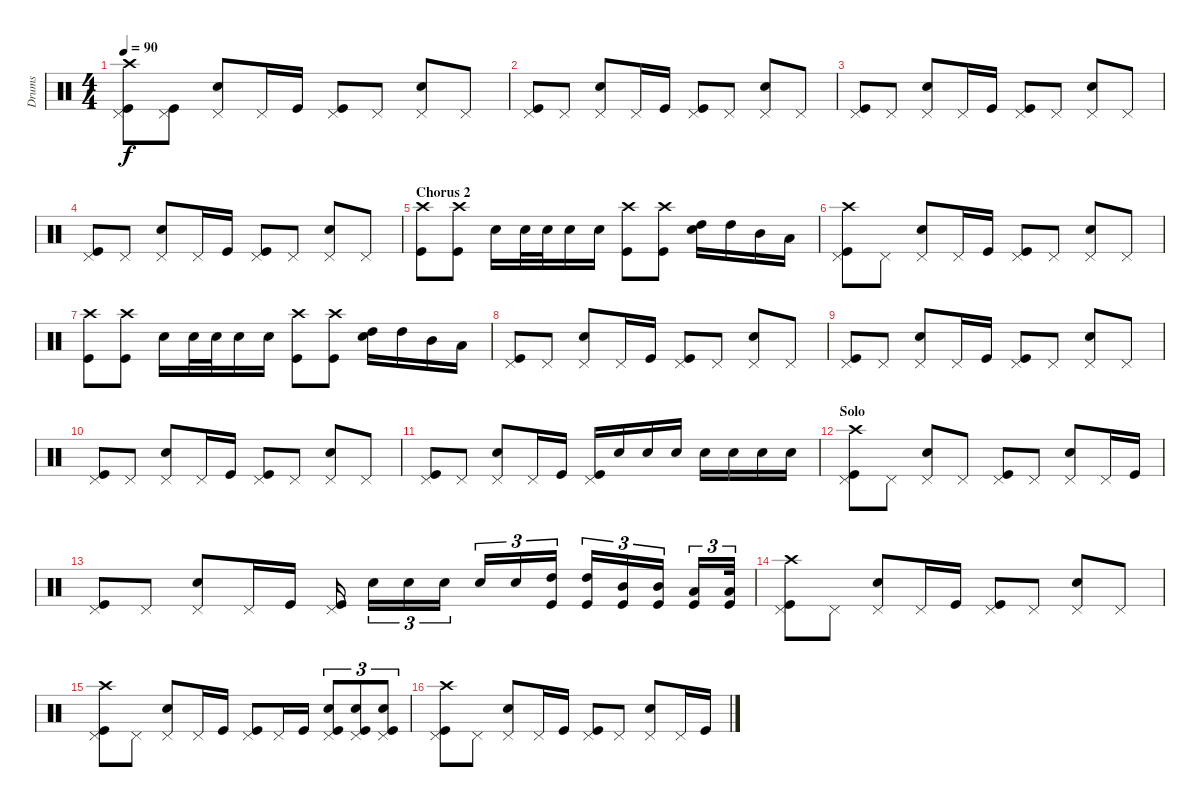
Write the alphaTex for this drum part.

\track ("Drums" "Drums") {instrument percussion}
\staff {score}
\articulation defaults
\ts (4 4)
\tempo 90
\clef neutral
\ks c
("Pedal Hi-Hat (hit)" "Kick (hit)" "Crash high (hit)").8{dy f} ("Pedal Hi-Hat (hit)" "Kick (hit)").8 ("Pedal Hi-Hat (hit)" "Snare (hit) 2").8 "Pedal Hi-Hat (hit)".16 "Kick (hit)".16 ("Pedal Hi-Hat (hit)" "Kick (hit)").8 "Pedal Hi-Hat (hit)".8 ("Pedal Hi-Hat (hit)" "Snare (hit) 2").8 "Pedal Hi-Hat (hit)".8 |
("Pedal Hi-Hat (hit)" "Kick (hit)").8 "Pedal Hi-Hat (hit)".8 ("Pedal Hi-Hat (hit)" "Snare (hit) 2").8 "Pedal Hi-Hat (hit)".16 "Kick (hit)".16 ("Pedal Hi-Hat (hit)" "Kick (hit)").8 "Pedal Hi-Hat (hit)".8 ("Pedal Hi-Hat (hit)" "Snare (hit) 2").8 "Pedal Hi-Hat (hit)".8 |
("Pedal Hi-Hat (hit)" "Kick (hit)").8 "Pedal Hi-Hat (hit)".8 ("Pedal Hi-Hat (hit)" "Snare (hit) 2").8 "Pedal Hi-Hat (hit)".16 "Kick (hit)".16 ("Pedal Hi-Hat (hit)" "Kick (hit)").8 "Pedal Hi-Hat (hit)".8 ("Pedal Hi-Hat (hit)" "Snare (hit) 2").8 "Pedal Hi-Hat (hit)".8 |
("Pedal Hi-Hat (hit)" "Kick (hit)").8 "Pedal Hi-Hat (hit)".8 ("Pedal Hi-Hat (hit)" "Snare (hit) 2").8 "Pedal Hi-Hat (hit)".16 "Kick (hit)".16 ("Pedal Hi-Hat (hit)" "Kick (hit)").8 "Pedal Hi-Hat (hit)".8 ("Pedal Hi-Hat (hit)" "Snare (hit) 2").8 "Pedal Hi-Hat (hit)".8 |
\section ("" "Chorus 2")
("Kick (hit)" "Crash high (hit)").8 ("Kick (hit)" "Crash high (hit)").8 "Snare (hit) 2".16 "Snare (hit) 2".32 "Snare (hit) 2".32 "Snare (hit) 2".16 "Snare (hit) 2".16 ("Kick (hit)" "Crash high (hit)").8 ("Kick (hit)" "Crash high (hit)").8 ("Snare (hit) 2" "High Tom (hit)").16 "High Tom (hit)".16 "Mid Tom (hit)".16 "Low Tom (hit)".16 |
("Pedal Hi-Hat (hit)" "Kick (hit)" "Crash high (hit)").8 "Pedal Hi-Hat (hit)".8 ("Pedal Hi-Hat (hit)" "Snare (hit) 2").8 "Pedal Hi-Hat (hit)".16 "Kick (hit)".16 ("Pedal Hi-Hat (hit)" "Kick (hit)").8 "Pedal Hi-Hat (hit)".8 ("Pedal Hi-Hat (hit)" "Snare (hit) 2").8 "Pedal Hi-Hat (hit)".8 |
("Kick (hit)" "Crash high (hit)").8 ("Kick (hit)" "Crash high (hit)").8 "Snare (hit) 2".16 "Snare (hit) 2".32 "Snare (hit) 2".32 "Snare (hit) 2".16 "Snare (hit) 2".16 ("Kick (hit)" "Crash high (hit)").8 ("Kick (hit)" "Crash high (hit)").8 ("Snare (hit) 2" "High Tom (hit)").16 "High Tom (hit)".16 "Mid Tom (hit)".16 "Low Tom (hit)".16 |
("Pedal Hi-Hat (hit)" "Kick (hit)").8 "Pedal Hi-Hat (hit)".8 ("Pedal Hi-Hat (hit)" "Snare (hit) 2").8 "Pedal Hi-Hat (hit)".16 "Kick (hit)".16 ("Pedal Hi-Hat (hit)" "Kick (hit)").8 "Pedal Hi-Hat (hit)".8 ("Pedal Hi-Hat (hit)" "Snare (hit) 2").8 "Pedal Hi-Hat (hit)".8 |
("Pedal Hi-Hat (hit)" "Kick (hit)").8 "Pedal Hi-Hat (hit)".8 ("Pedal Hi-Hat (hit)" "Snare (hit) 2").8 "Pedal Hi-Hat (hit)".16 "Kick (hit)".16 ("Pedal Hi-Hat (hit)" "Kick (hit)").8 "Pedal Hi-Hat (hit)".8 ("Pedal Hi-Hat (hit)" "Snare (hit) 2").8 "Pedal Hi-Hat (hit)".8 |
("Pedal Hi-Hat (hit)" "Kick (hit)").8 "Pedal Hi-Hat (hit)".8 ("Pedal Hi-Hat (hit)" "Snare (hit) 2").8 "Pedal Hi-Hat (hit)".16 "Kick (hit)".16 ("Pedal Hi-Hat (hit)" "Kick (hit)").8 "Pedal Hi-Hat (hit)".8 ("Pedal Hi-Hat (hit)" "Snare (hit) 2").8 "Pedal Hi-Hat (hit)".8 |
("Pedal Hi-Hat (hit)" "Kick (hit)").8 "Pedal Hi-Hat (hit)".8 ("Pedal Hi-Hat (hit)" "Snare (hit) 2").8 "Pedal Hi-Hat (hit)".16 "Kick (hit)".16 ("Pedal Hi-Hat (hit)" "Kick (hit)").16 "Snare (hit) 2".16 "Snare (hit) 2".16 "Snare (hit) 2".16 "Snare (hit) 2".16 "Snare (hit) 2".16 "Snare (hit) 2".16 "Snare (hit) 2".16 |
\section ("" "Solo")
("Pedal Hi-Hat (hit)" "Kick (hit)" "Crash high (hit)").8 "Pedal Hi-Hat (hit)".8 ("Pedal Hi-Hat (hit)" "Snare (hit) 2").8 "Pedal Hi-Hat (hit)".8 ("Pedal Hi-Hat (hit)" "Kick (hit)").8 "Pedal Hi-Hat (hit)".8 ("Pedal Hi-Hat (hit)" "Snare (hit) 2").8 "Pedal Hi-Hat (hit)".16 "Kick (hit)".16 |
("Pedal Hi-Hat (hit)" "Kick (hit)").8 "Pedal Hi-Hat (hit)".8 ("Pedal Hi-Hat (hit)" "Snare (hit) 2").8 "Pedal Hi-Hat (hit)".16 "Kick (hit)".16 ("Pedal Hi-Hat (hit)" "Kick (hit)").16 "Snare (hit) 2".16{tu (3 2)} "Snare (hit) 2".16{tu (3 2)} "Snare (hit) 2".16{tu (3 2)} "Snare (hit) 2".16{tu (3 2)} "Snare (hit) 2".16{tu (3 2)} ("High Tom (hit)" "Kick (hit)").16{tu (3 2)} ("High Tom (hit)" "Kick (hit)").16{tu (3 2)} ("Mid Tom (hit)" "Kick (hit)").16{tu (3 2)} ("Mid Tom (hit)" "Kick (hit)").16{tu (3 2)} ("Low Tom (hit)" "Kick (hit)").16{tu (3 2)} ("Low Tom (hit)" "Kick (hit)").32{tu (3 2)} |
("Pedal Hi-Hat (hit)" "Kick (hit)" "Crash high (hit)").8 "Pedal Hi-Hat (hit)".8 ("Pedal Hi-Hat (hit)" "Snare (hit) 2").8 "Pedal Hi-Hat (hit)".16 "Kick (hit)".16 ("Pedal Hi-Hat (hit)" "Kick (hit)").8 "Pedal Hi-Hat (hit)".8 ("Pedal Hi-Hat (hit)" "Snare (hit) 2").8 "Pedal Hi-Hat (hit)".8 |
("Pedal Hi-Hat (hit)" "Kick (hit)" "Crash high (hit)").8 "Pedal Hi-Hat (hit)".8 ("Pedal Hi-Hat (hit)" "Snare (hit) 2").8 "Pedal Hi-Hat (hit)".16 "Kick (hit)".16 ("Pedal Hi-Hat (hit)" "Kick (hit)").8 "Pedal Hi-Hat (hit)".16 "Kick (hit)".16 ("Pedal Hi-Hat (hit)" "Snare (hit) 2" "Kick (hit)").8{tu (3 2)} ("Pedal Hi-Hat (hit)" "Snare (hit) 2" "Kick (hit)").8{tu (3 2)} ("Pedal Hi-Hat (hit)" "Snare (hit) 2" "Kick (hit)").8{tu (3 2)} |
("Pedal Hi-Hat (hit)" "Kick (hit)" "Crash high (hit)").8 "Pedal Hi-Hat (hit)".8 ("Pedal Hi-Hat (hit)" "Snare (hit) 2").8 "Pedal Hi-Hat (hit)".16 "Kick (hit)".16 ("Pedal Hi-Hat (hit)" "Kick (hit)").8 "Pedal Hi-Hat (hit)".8 ("Pedal Hi-Hat (hit)" "Snare (hit) 2").8 "Pedal Hi-Hat (hit)".16 "Kick (hit)".16
